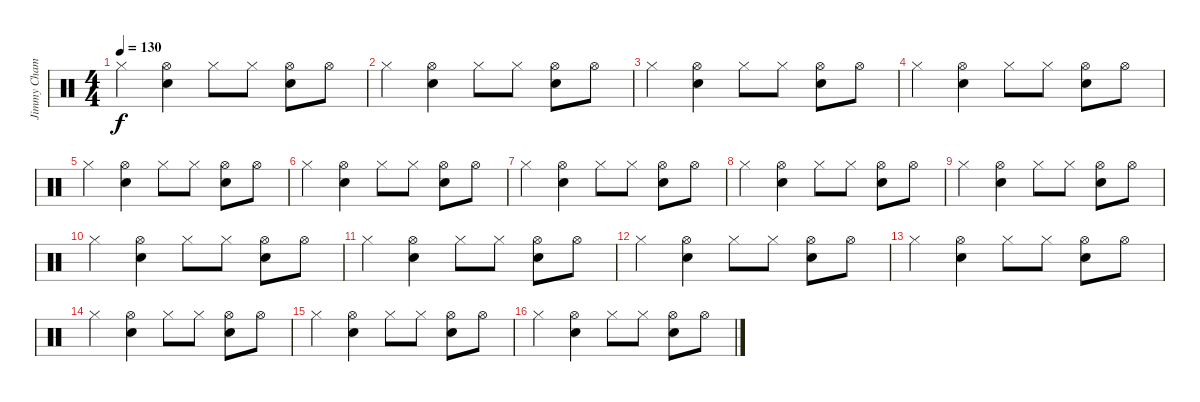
\track ("Jimmy Chamberlin (Drums)" "Jimmy Cham") {instrument percussion}
\staff {score}
\articulation defaults
\ts (4 4)
\tempo 130
\clef neutral
\ks c "Hi-Hat (closed)".4{dy f}
("Snare (hit) 2" "Hi-Hat (open)").4 "Hi-Hat (closed)".8 "Hi-Hat (closed)".8 ("Snare (hit) 2" "Hi-Hat (open)").8 "Hi-Hat (open)".8 |
"Hi-Hat (closed)".4 ("Snare (hit) 2" "Hi-Hat (open)").4 "Hi-Hat (closed)".8 "Hi-Hat (closed)".8 ("Snare (hit) 2" "Hi-Hat (open)").8 "Hi-Hat (open)".8 |
"Hi-Hat (closed)".4 ("Snare (hit) 2" "Hi-Hat (open)").4 "Hi-Hat (closed)".8 "Hi-Hat (closed)".8 ("Snare (hit) 2" "Hi-Hat (open)").8 "Hi-Hat (open)".8 |
"Hi-Hat (closed)".4 ("Snare (hit) 2" "Hi-Hat (open)").4 "Hi-Hat (closed)".8 "Hi-Hat (closed)".8 ("Snare (hit) 2" "Hi-Hat (open)").8 "Hi-Hat (open)".8 |
"Hi-Hat (closed)".4 ("Snare (hit) 2" "Hi-Hat (open)").4 "Hi-Hat (closed)".8 "Hi-Hat (closed)".8 ("Snare (hit) 2" "Hi-Hat (open)").8 "Hi-Hat (open)".8 |
"Hi-Hat (closed)".4 ("Snare (hit) 2" "Hi-Hat (open)").4 "Hi-Hat (closed)".8 "Hi-Hat (closed)".8 ("Snare (hit) 2" "Hi-Hat (open)").8 "Hi-Hat (open)".8 |
"Hi-Hat (closed)".4 ("Snare (hit) 2" "Hi-Hat (open)").4 "Hi-Hat (closed)".8 "Hi-Hat (closed)".8 ("Snare (hit) 2" "Hi-Hat (open)").8 "Hi-Hat (open)".8 |
"Hi-Hat (closed)".4 ("Snare (hit) 2" "Hi-Hat (open)").4 "Hi-Hat (closed)".8 "Hi-Hat (closed)".8 ("Snare (hit) 2" "Hi-Hat (open)").8 "Hi-Hat (open)".8 |
"Hi-Hat (closed)".4 ("Snare (hit) 2" "Hi-Hat (open)").4 "Hi-Hat (closed)".8 "Hi-Hat (closed)".8 ("Snare (hit) 2" "Hi-Hat (open)").8 "Hi-Hat (open)".8 |
"Hi-Hat (closed)".4 ("Snare (hit) 2" "Hi-Hat (open)").4 "Hi-Hat (closed)".8 "Hi-Hat (closed)".8 ("Snare (hit) 2" "Hi-Hat (open)").8 "Hi-Hat (open)".8 |
"Hi-Hat (closed)".4 ("Snare (hit) 2" "Hi-Hat (open)").4 "Hi-Hat (closed)".8 "Hi-Hat (closed)".8 ("Snare (hit) 2" "Hi-Hat (open)").8 "Hi-Hat (open)".8 |
"Hi-Hat (closed)".4 ("Snare (hit) 2" "Hi-Hat (open)").4 "Hi-Hat (closed)".8 "Hi-Hat (closed)".8 ("Snare (hit) 2" "Hi-Hat (open)").8 "Hi-Hat (open)".8 |
"Hi-Hat (closed)".4 ("Snare (hit) 2" "Hi-Hat (open)").4 "Hi-Hat (closed)".8 "Hi-Hat (closed)".8 ("Snare (hit) 2" "Hi-Hat (open)").8 "Hi-Hat (open)".8 |
"Hi-Hat (closed)".4 ("Snare (hit) 2" "Hi-Hat (open)").4 "Hi-Hat (closed)".8 "Hi-Hat (closed)".8 ("Snare (hit) 2" "Hi-Hat (open)").8 "Hi-Hat (open)".8 |
"Hi-Hat (closed)".4 ("Snare (hit) 2" "Hi-Hat (open)").4 "Hi-Hat (closed)".8 "Hi-Hat (closed)".8 ("Snare (hit) 2" "Hi-Hat (open)").8 "Hi-Hat (open)".8 |
"Hi-Hat (closed)".4 ("Snare (hit) 2" "Hi-Hat (open)").4 "Hi-Hat (closed)".8 "Hi-Hat (closed)".8 ("Snare (hit) 2" "Hi-Hat (open)").8 "Hi-Hat (open)".8
